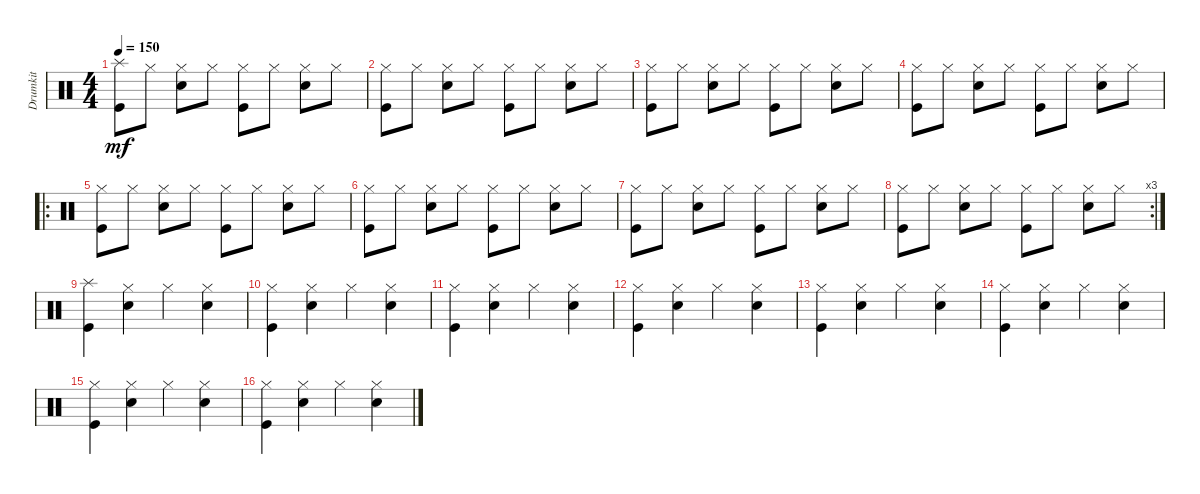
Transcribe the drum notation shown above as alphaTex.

\track ("Drumkit" "Drumkit") {instrument percussion}
\staff {score}
\articulation defaults
\ts (4 4)
\tempo 150
\clef neutral
\ks c
("Kick (hit)" "Splash (hit)").8{dy mf} "Hi-Hat (closed)".8 ("Hi-Hat (closed)" "Snare (hit) 2").8 "Hi-Hat (closed)".8 ("Hi-Hat (closed)" "Kick (hit)").8 "Hi-Hat (closed)".8 ("Hi-Hat (closed)" "Snare (hit) 2").8 "Hi-Hat (closed)".8 |
("Kick (hit)" "Hi-Hat (closed)").8 "Hi-Hat (closed)".8 ("Hi-Hat (closed)" "Snare (hit) 2").8 "Hi-Hat (closed)".8 ("Hi-Hat (closed)" "Kick (hit)").8 "Hi-Hat (closed)".8 ("Hi-Hat (closed)" "Snare (hit) 2").8 "Hi-Hat (closed)".8 |
("Kick (hit)" "Hi-Hat (closed)").8 "Hi-Hat (closed)".8 ("Hi-Hat (closed)" "Snare (hit) 2").8 "Hi-Hat (closed)".8 ("Hi-Hat (closed)" "Kick (hit)").8 "Hi-Hat (closed)".8 ("Hi-Hat (closed)" "Snare (hit) 2").8 "Hi-Hat (closed)".8 |
("Kick (hit)" "Hi-Hat (closed)").8 "Hi-Hat (closed)".8 ("Hi-Hat (closed)" "Snare (hit) 2").8 "Hi-Hat (closed)".8 ("Hi-Hat (closed)" "Kick (hit)").8 "Hi-Hat (closed)".8 ("Hi-Hat (closed)" "Snare (hit) 2").8 "Hi-Hat (closed)".8 |
\ro
("Kick (hit)" "Hi-Hat (closed)").8 "Hi-Hat (closed)".8 ("Hi-Hat (closed)" "Snare (hit) 2").8 "Hi-Hat (closed)".8 ("Hi-Hat (closed)" "Kick (hit)").8 "Hi-Hat (closed)".8 ("Hi-Hat (closed)" "Snare (hit) 2").8 "Hi-Hat (closed)".8 |
("Kick (hit)" "Hi-Hat (closed)").8 "Hi-Hat (closed)".8 ("Hi-Hat (closed)" "Snare (hit) 2").8 "Hi-Hat (closed)".8 ("Hi-Hat (closed)" "Kick (hit)").8 "Hi-Hat (closed)".8 ("Hi-Hat (closed)" "Snare (hit) 2").8 "Hi-Hat (closed)".8 |
("Kick (hit)" "Hi-Hat (closed)").8 "Hi-Hat (closed)".8 ("Hi-Hat (closed)" "Snare (hit) 2").8 "Hi-Hat (closed)".8 ("Hi-Hat (closed)" "Kick (hit)").8 "Hi-Hat (closed)".8 ("Hi-Hat (closed)" "Snare (hit) 2").8 "Hi-Hat (closed)".8 |
\rc 3
("Kick (hit)" "Hi-Hat (closed)").8 "Hi-Hat (closed)".8 ("Hi-Hat (closed)" "Snare (hit) 2").8 "Hi-Hat (closed)".8 ("Hi-Hat (closed)" "Kick (hit)").8 "Hi-Hat (closed)".8 ("Hi-Hat (closed)" "Snare (hit) 2").8 "Hi-Hat (closed)".8 |
("Kick (hit)" "Splash (hit)").4 ("Hi-Hat (closed)" "Snare (hit) 2").4 "Hi-Hat (closed)".4 ("Hi-Hat (closed)" "Snare (hit) 2").4 |
("Kick (hit)" "Hi-Hat (closed)").4 ("Hi-Hat (closed)" "Snare (hit) 2").4 "Hi-Hat (closed)".4 ("Hi-Hat (closed)" "Snare (hit) 2").4 |
("Kick (hit)" "Hi-Hat (closed)").4 ("Hi-Hat (closed)" "Snare (hit) 2").4 "Hi-Hat (closed)".4 ("Hi-Hat (closed)" "Snare (hit) 2").4 |
("Kick (hit)" "Hi-Hat (closed)").4 ("Hi-Hat (closed)" "Snare (hit) 2").4 "Hi-Hat (closed)".4 ("Hi-Hat (closed)" "Snare (hit) 2").4 |
("Kick (hit)" "Hi-Hat (closed)").4 ("Hi-Hat (closed)" "Snare (hit) 2").4 "Hi-Hat (closed)".4 ("Hi-Hat (closed)" "Snare (hit) 2").4 |
("Kick (hit)" "Hi-Hat (closed)").4 ("Hi-Hat (closed)" "Snare (hit) 2").4 "Hi-Hat (closed)".4 ("Hi-Hat (closed)" "Snare (hit) 2").4 |
("Kick (hit)" "Hi-Hat (closed)").4 ("Hi-Hat (closed)" "Snare (hit) 2").4 "Hi-Hat (closed)".4 ("Hi-Hat (closed)" "Snare (hit) 2").4 |
("Kick (hit)" "Hi-Hat (closed)").4 ("Hi-Hat (closed)" "Snare (hit) 2").4 "Hi-Hat (closed)".4 ("Hi-Hat (closed)" "Snare (hit) 2").4
